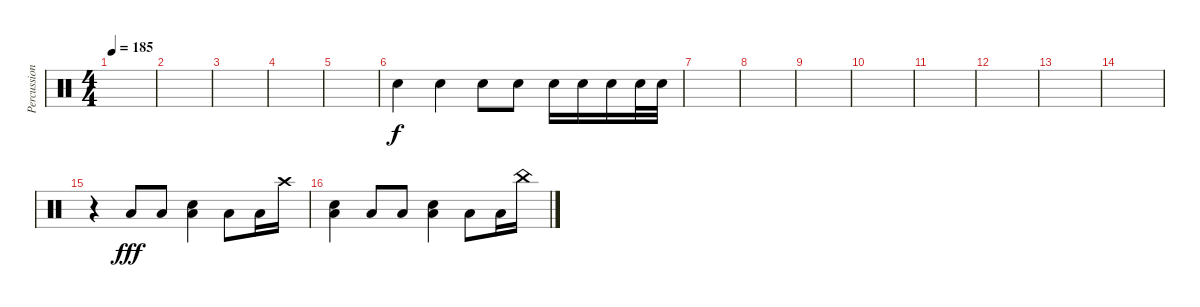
\track ("Percussions" "Percussion") {instrument percussion}
\staff {score}
\articulation defaults
\ts (4 4)
\tempo 185
\clef neutral
\ks c
|
|
|
|
|
"Electric Snare (hit)".4 "Electric Snare (hit)".4 "Electric Snare (hit)".8 "Electric Snare (hit)".8 "Electric Snare (hit)".16 "Electric Snare (hit)".16 "Electric Snare (hit)".16 "Electric Snare (hit)".32 "Electric Snare (hit)".32 |
|
|
|
|
|
|
|
|
r.4 "Low Tom (hit)".8{dy fff} "Low Tom (hit)".8 ("Electric Snare (hit)" "Low Tom (hit)").4 "Low Tom (hit)".8 "Low Tom (hit)".16 "Crash high (hit)".16 |
("Electric Snare (hit)" "Low Tom (hit)").4 "Low Tom (hit)".8 "Low Tom (hit)".8 ("Electric Snare (hit)" "Low Tom (hit)").4 "Low Tom (hit)".8 "Low Tom (hit)".16 "China (hit)".16
